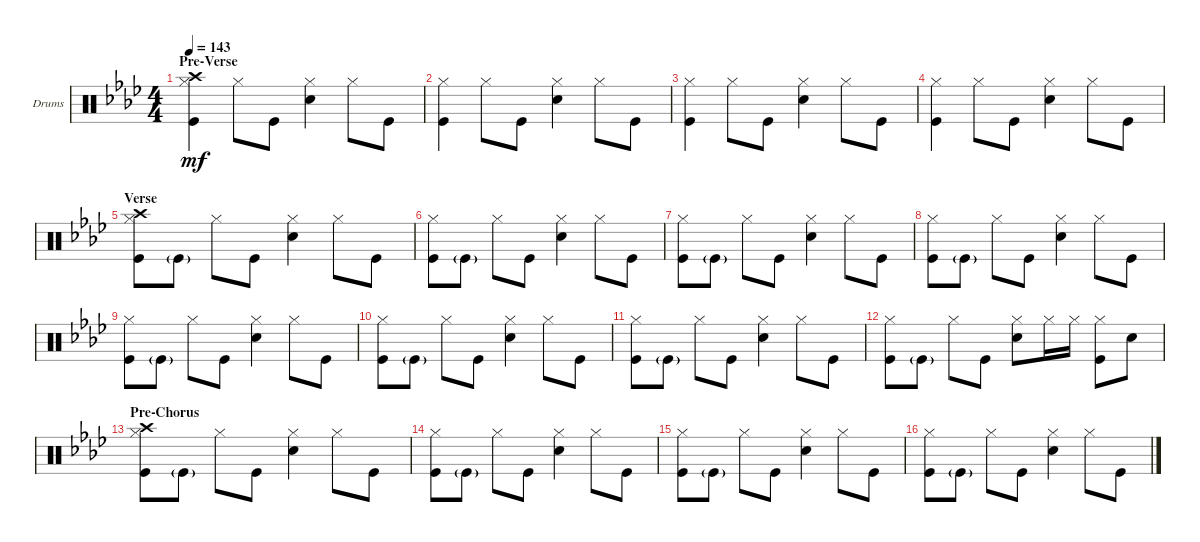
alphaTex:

\defaultSystemsLayout 4
\bracketExtendMode groupsimilarinstruments
\firstSystemTrackNameOrientation horizontal
\otherSystemsTrackNameOrientation horizontal
\track ("Drumkit" "Drums") {instrument percussion}
\staff {score}
\articulation defaults
\ts (4 4)
\section ("" "Pre-Verse")
\tempo 143
\clef neutral
\ks fminor
("Kick (hit)" "Hi-Hat (closed)" "Crash high (hit)").4{dy mf} "Hi-Hat (closed)".8 "Kick (hit)".8 ("Snare (hit) 2" "Hi-Hat (closed)").4 "Hi-Hat (closed)".8 "Kick (hit)".8 |
("Kick (hit)" "Hi-Hat (closed)").4 "Hi-Hat (closed)".8 "Kick (hit)".8 ("Snare (hit) 2" "Hi-Hat (closed)").4 "Hi-Hat (closed)".8 "Kick (hit)".8 |
("Kick (hit)" "Hi-Hat (closed)").4 "Hi-Hat (closed)".8 "Kick (hit)".8 ("Snare (hit) 2" "Hi-Hat (closed)").4 "Hi-Hat (closed)".8 "Kick (hit)".8 |
("Kick (hit)" "Hi-Hat (closed)").4 "Hi-Hat (closed)".8 "Kick (hit)".8 ("Snare (hit) 2" "Hi-Hat (closed)").4 "Hi-Hat (closed)".8 "Kick (hit)".8 |
\section ("" "Verse")
("Kick (hit)" "Hi-Hat (closed)" "Crash high (hit)").8 "Kick (hit)"{g}.8 "Hi-Hat (closed)".8 "Kick (hit)".8 ("Snare (hit) 2" "Hi-Hat (closed)").4 "Hi-Hat (closed)".8 "Kick (hit)".8 |
("Kick (hit)" "Hi-Hat (closed)").8 "Kick (hit)"{g}.8 "Hi-Hat (closed)".8 "Kick (hit)".8 ("Snare (hit) 2" "Hi-Hat (closed)").4 "Hi-Hat (closed)".8 "Kick (hit)".8 |
("Kick (hit)" "Hi-Hat (closed)").8 "Kick (hit)"{g}.8 "Hi-Hat (closed)".8 "Kick (hit)".8 ("Snare (hit) 2" "Hi-Hat (closed)").4 "Hi-Hat (closed)".8 "Kick (hit)".8 |
("Kick (hit)" "Hi-Hat (closed)").8 "Kick (hit)"{g}.8 "Hi-Hat (closed)".8 "Kick (hit)".8 ("Snare (hit) 2" "Hi-Hat (closed)").4 "Hi-Hat (closed)".8 "Kick (hit)".8 |
("Kick (hit)" "Hi-Hat (closed)").8 "Kick (hit)"{g}.8 "Hi-Hat (closed)".8 "Kick (hit)".8 ("Snare (hit) 2" "Hi-Hat (closed)").4 "Hi-Hat (closed)".8 "Kick (hit)".8 |
("Kick (hit)" "Hi-Hat (closed)").8 "Kick (hit)"{g}.8 "Hi-Hat (closed)".8 "Kick (hit)".8 ("Snare (hit) 2" "Hi-Hat (closed)").4 "Hi-Hat (closed)".8 "Kick (hit)".8 |
("Kick (hit)" "Hi-Hat (closed)").8 "Kick (hit)"{g}.8 "Hi-Hat (closed)".8 "Kick (hit)".8 ("Snare (hit) 2" "Hi-Hat (closed)").4 "Hi-Hat (closed)".8 "Kick (hit)".8 |
("Kick (hit)" "Hi-Hat (closed)").8 "Kick (hit)"{g}.8 "Hi-Hat (closed)".8 "Kick (hit)".8 ("Snare (hit) 2" "Hi-Hat (closed)").8 "Hi-Hat (closed)".16 "Hi-Hat (closed)".16 ("Kick (hit)" "Hi-Hat (closed)").8 "Snare (hit) 2".8 |
\section ("" "Pre-Chorus")
("Kick (hit)" "Hi-Hat (closed)" "Crash high (hit)").8 "Kick (hit)"{g}.8 "Hi-Hat (closed)".8 "Kick (hit)".8 ("Snare (hit) 2" "Hi-Hat (closed)").4 "Hi-Hat (closed)".8 "Kick (hit)".8 |
("Kick (hit)" "Hi-Hat (closed)").8 "Kick (hit)"{g}.8 "Hi-Hat (closed)".8 "Kick (hit)".8 ("Snare (hit) 2" "Hi-Hat (closed)").4 "Hi-Hat (closed)".8 "Kick (hit)".8 |
("Kick (hit)" "Hi-Hat (closed)").8 "Kick (hit)"{g}.8 "Hi-Hat (closed)".8 "Kick (hit)".8 ("Snare (hit) 2" "Hi-Hat (closed)").4 "Hi-Hat (closed)".8 "Kick (hit)".8 |
("Kick (hit)" "Hi-Hat (closed)").8 "Kick (hit)"{g}.8 "Hi-Hat (closed)".8 "Kick (hit)".8 ("Snare (hit) 2" "Hi-Hat (closed)").4 "Hi-Hat (closed)".8 "Kick (hit)".8
